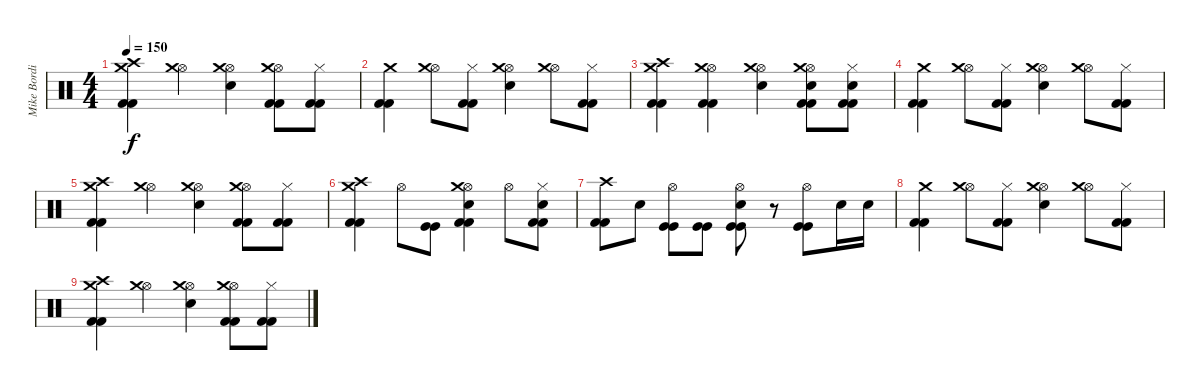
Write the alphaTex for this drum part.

\track ("Mike Bordin" "Mike Bordi") {instrument percussion}
\staff {score}
\articulation defaults
\ts (4 4)
\tempo 150
\clef neutral
\ks c
("Crash high (hit)" "Crash medium (hit)" "Kick (hit) 2" "Kick (hit) 2").4{dy f} ("Hi-Hat (open)" "Crash medium (hit)").4 ("Hi-Hat (open)" "Crash medium (hit)" "Electric Snare (hit)").4 ("Hi-Hat (open)" "Crash medium (hit)" "Kick (hit) 2" "Kick (hit) 2").8 ("Hi-Hat (closed)" "Kick (hit) 2" "Kick (hit) 2").8 |
("Crash medium (hit)" "Kick (hit) 2" "Kick (hit) 2").4 ("Hi-Hat (open)" "Crash medium (hit)").8 ("Hi-Hat (closed)" "Kick (hit) 2" "Kick (hit) 2").8 ("Hi-Hat (open)" "Crash medium (hit)" "Electric Snare (hit)").4 ("Hi-Hat (open)" "Crash medium (hit)").8 ("Hi-Hat (closed)" "Kick (hit) 2" "Kick (hit) 2").8 |
("Crash high (hit)" "Crash medium (hit)" "Kick (hit) 2" "Kick (hit) 2").4 ("Hi-Hat (open)" "Crash medium (hit)" "Kick (hit) 2" "Kick (hit) 2").4 ("Hi-Hat (open)" "Crash medium (hit)" "Electric Snare (hit)").4 ("Hi-Hat (open)" "Crash medium (hit)" "Electric Snare (hit)" "Kick (hit) 2" "Kick (hit) 2").8 ("Hi-Hat (closed)" "Electric Snare (hit)" "Kick (hit) 2" "Kick (hit) 2").8 |
("Crash medium (hit)" "Kick (hit) 2" "Kick (hit) 2").4 ("Hi-Hat (open)" "Crash medium (hit)").8 ("Hi-Hat (closed)" "Kick (hit) 2" "Kick (hit) 2").8 ("Hi-Hat (open)" "Crash medium (hit)" "Electric Snare (hit)").4 ("Hi-Hat (open)" "Crash medium (hit)").8 ("Hi-Hat (closed)" "Kick (hit) 2" "Kick (hit) 2").8 |
("Crash high (hit)" "Crash medium (hit)" "Kick (hit) 2" "Kick (hit) 2").4 ("Hi-Hat (open)" "Crash medium (hit)").4 ("Hi-Hat (open)" "Crash medium (hit)" "Electric Snare (hit)").4 ("Hi-Hat (open)" "Crash medium (hit)" "Kick (hit) 2" "Kick (hit) 2").8 ("Hi-Hat (closed)" "Kick (hit) 2" "Kick (hit) 2").8 |
("Crash high (hit)" "Crash medium (hit)" "Kick (hit) 2" "Kick (hit) 2").4 "Hi-Hat (open)".8 ("Kick (hit)" "Kick (hit)").8 ("Hi-Hat (open)" "Crash medium (hit)" "Electric Snare (hit)" "Kick (hit) 2" "Kick (hit) 2").4 "Hi-Hat (open)".8 ("Hi-Hat (closed)" "Electric Snare (hit)" "Kick (hit) 2" "Kick (hit) 2").8 |
("Crash high (hit)" "Kick (hit) 2" "Kick (hit) 2").8 "Electric Snare (hit)".8 ("Hi-Hat (open)" "Kick (hit)" "Kick (hit)").8 ("Kick (hit)" "Kick (hit)").8 ("Hi-Hat (open)" "Electric Snare (hit)" "Kick (hit)" "Kick (hit)").8 r.8 ("Hi-Hat (open)" "Kick (hit)" "Kick (hit)").8 "Electric Snare (hit)".16 "Electric Snare (hit)".16 |
("Crash medium (hit)" "Kick (hit) 2" "Kick (hit) 2").4 ("Hi-Hat (open)" "Crash medium (hit)").8 ("Hi-Hat (closed)" "Kick (hit) 2" "Kick (hit) 2").8 ("Hi-Hat (open)" "Crash medium (hit)" "Electric Snare (hit)").4 ("Hi-Hat (open)" "Crash medium (hit)").8 ("Hi-Hat (closed)" "Kick (hit) 2" "Kick (hit) 2").8 |
("Crash high (hit)" "Crash medium (hit)" "Kick (hit) 2" "Kick (hit) 2").4 ("Hi-Hat (open)" "Crash medium (hit)").4 ("Hi-Hat (open)" "Crash medium (hit)" "Electric Snare (hit)").4 ("Hi-Hat (open)" "Crash medium (hit)" "Kick (hit) 2" "Kick (hit) 2").8 ("Hi-Hat (closed)" "Kick (hit) 2" "Kick (hit) 2").8
